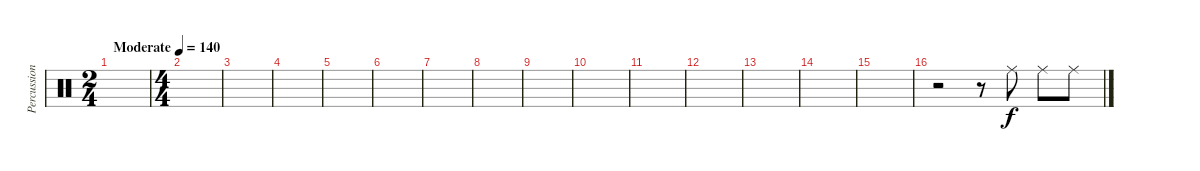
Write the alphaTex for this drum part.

\track ("Percussion" "Percussion") {instrument percussion}
\staff {score}
\articulation defaults
\ts (2 4)
\tempo (140 "Moderate")
\clef neutral
\ks c
|
\ts (4 4)
|
|
|
|
|
|
|
|
|
|
|
|
|
|
r.2 r.8 "Ride (middle)".8 "Ride (middle)".8 "Ride (middle)".8
